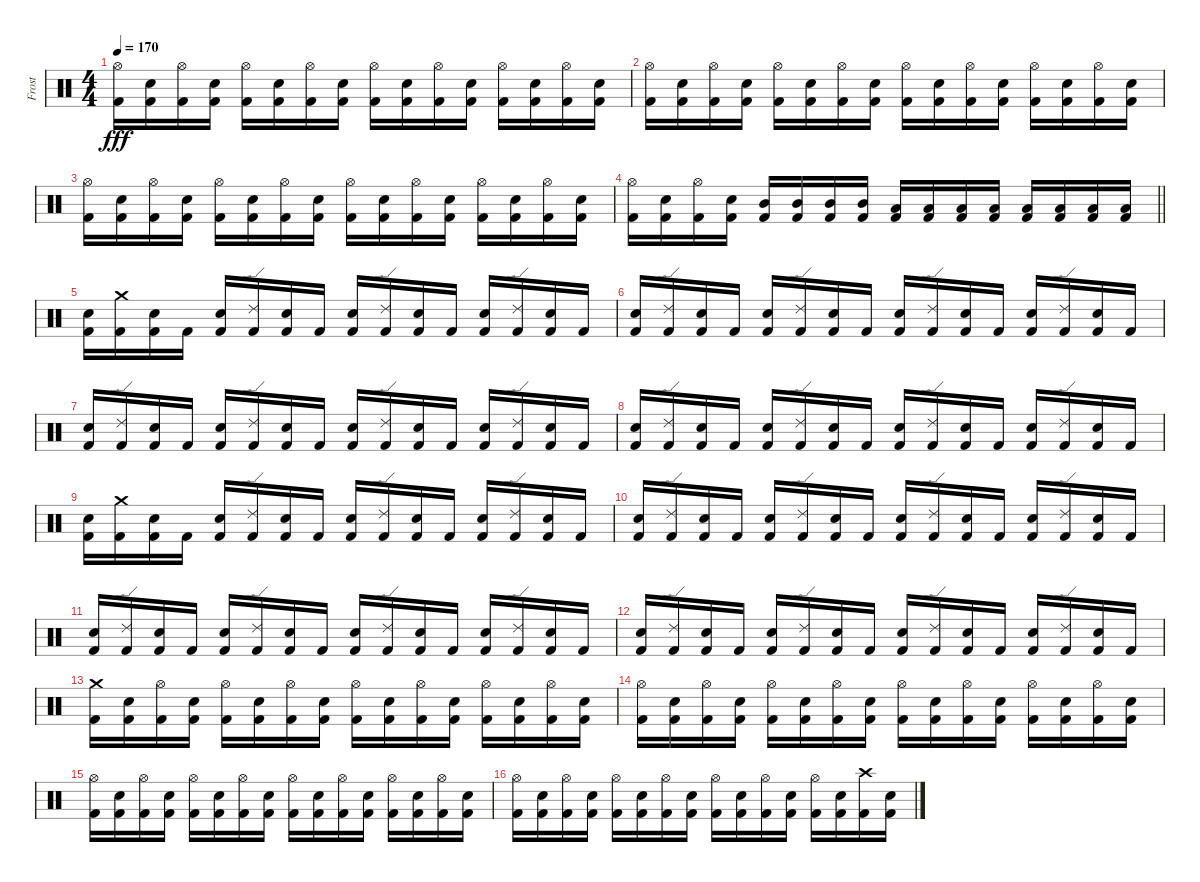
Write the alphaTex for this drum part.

\track ("Frost" "Frost") {instrument percussion}
\staff {score}
\articulation defaults
\ts (4 4)
\tempo 170
\clef neutral
\ks c
("Hi-Hat (open)" "Kick (hit) 2").16{dy fff} ("Electric Snare (hit)" "Kick (hit) 2").16 ("Hi-Hat (open)" "Kick (hit) 2").16 ("Electric Snare (hit)" "Kick (hit) 2").16 ("Hi-Hat (open)" "Kick (hit) 2").16 ("Electric Snare (hit)" "Kick (hit) 2").16 ("Hi-Hat (open)" "Kick (hit) 2").16 ("Electric Snare (hit)" "Kick (hit) 2").16 ("Hi-Hat (open)" "Kick (hit) 2").16 ("Electric Snare (hit)" "Kick (hit) 2").16 ("Hi-Hat (open)" "Kick (hit) 2").16 ("Electric Snare (hit)" "Kick (hit) 2").16 ("Hi-Hat (open)" "Kick (hit) 2").16 ("Electric Snare (hit)" "Kick (hit) 2").16 ("Hi-Hat (open)" "Kick (hit) 2").16 ("Electric Snare (hit)" "Kick (hit) 2").16 |
("Hi-Hat (open)" "Kick (hit) 2").16 ("Electric Snare (hit)" "Kick (hit) 2").16 ("Hi-Hat (open)" "Kick (hit) 2").16 ("Electric Snare (hit)" "Kick (hit) 2").16 ("Hi-Hat (open)" "Kick (hit) 2").16 ("Electric Snare (hit)" "Kick (hit) 2").16 ("Hi-Hat (open)" "Kick (hit) 2").16 ("Electric Snare (hit)" "Kick (hit) 2").16 ("Hi-Hat (open)" "Kick (hit) 2").16 ("Electric Snare (hit)" "Kick (hit) 2").16 ("Hi-Hat (open)" "Kick (hit) 2").16 ("Electric Snare (hit)" "Kick (hit) 2").16 ("Hi-Hat (open)" "Kick (hit) 2").16 ("Electric Snare (hit)" "Kick (hit) 2").16 ("Hi-Hat (open)" "Kick (hit) 2").16 ("Electric Snare (hit)" "Kick (hit) 2").16 |
("Hi-Hat (open)" "Kick (hit) 2").16 ("Electric Snare (hit)" "Kick (hit) 2").16 ("Hi-Hat (open)" "Kick (hit) 2").16 ("Electric Snare (hit)" "Kick (hit) 2").16 ("Hi-Hat (open)" "Kick (hit) 2").16 ("Electric Snare (hit)" "Kick (hit) 2").16 ("Hi-Hat (open)" "Kick (hit) 2").16 ("Electric Snare (hit)" "Kick (hit) 2").16 ("Hi-Hat (open)" "Kick (hit) 2").16 ("Electric Snare (hit)" "Kick (hit) 2").16 ("Hi-Hat (open)" "Kick (hit) 2").16 ("Electric Snare (hit)" "Kick (hit) 2").16 ("Hi-Hat (open)" "Kick (hit) 2").16 ("Electric Snare (hit)" "Kick (hit) 2").16 ("Hi-Hat (open)" "Kick (hit) 2").16 ("Electric Snare (hit)" "Kick (hit) 2").16 |
\barLineRight lightlight
("Hi-Hat (open)" "Kick (hit) 2").16 ("Electric Snare (hit)" "Kick (hit) 2").16 ("Hi-Hat (open)" "Kick (hit) 2").16 ("Electric Snare (hit)" "Kick (hit) 2").16 ("Mid Tom (hit)" "Kick (hit) 2").16 ("Mid Tom (hit)" "Kick (hit) 2").16 ("Mid Tom (hit)" "Kick (hit) 2").16 ("Mid Tom (hit)" "Kick (hit) 2").16 ("Low Tom (hit)" "Kick (hit) 2").16 ("Low Tom (hit)" "Kick (hit) 2").16 ("Low Tom (hit)" "Kick (hit) 2").16 ("Low Tom (hit)" "Kick (hit) 2").16 ("Low Floor Tom (hit)" "Kick (hit) 2").16 ("Low Floor Tom (hit)" "Kick (hit) 2").16 ("Low Floor Tom (hit)" "Kick (hit) 2").16 ("Low Floor Tom (hit)" "Kick (hit) 2").16 |
("Electric Snare (hit)" "Kick (hit) 2").16 ("Crash medium (hit)" "Kick (hit) 2").16 ("Electric Snare (hit)" "Kick (hit) 2").16 "Kick (hit) 2".16 ("Electric Snare (hit)" "Kick (hit) 2").16 ("Ride (edge) 2" "Kick (hit) 2").16 ("Electric Snare (hit)" "Kick (hit) 2").16 "Kick (hit) 2".16 ("Electric Snare (hit)" "Kick (hit) 2").16 ("Ride (edge) 2" "Kick (hit) 2").16 ("Electric Snare (hit)" "Kick (hit) 2").16 "Kick (hit) 2".16 ("Electric Snare (hit)" "Kick (hit) 2").16 ("Ride (edge) 2" "Kick (hit) 2").16 ("Electric Snare (hit)" "Kick (hit) 2").16 "Kick (hit) 2".16 |
("Electric Snare (hit)" "Kick (hit) 2").16 ("Ride (edge) 2" "Kick (hit) 2").16 ("Electric Snare (hit)" "Kick (hit) 2").16 "Kick (hit) 2".16 ("Electric Snare (hit)" "Kick (hit) 2").16 ("Ride (edge) 2" "Kick (hit) 2").16 ("Electric Snare (hit)" "Kick (hit) 2").16 "Kick (hit) 2".16 ("Electric Snare (hit)" "Kick (hit) 2").16 ("Ride (edge) 2" "Kick (hit) 2").16 ("Electric Snare (hit)" "Kick (hit) 2").16 "Kick (hit) 2".16 ("Electric Snare (hit)" "Kick (hit) 2").16 ("Ride (edge) 2" "Kick (hit) 2").16 ("Electric Snare (hit)" "Kick (hit) 2").16 "Kick (hit) 2".16 |
("Electric Snare (hit)" "Kick (hit) 2").16 ("Ride (edge) 2" "Kick (hit) 2").16 ("Electric Snare (hit)" "Kick (hit) 2").16 "Kick (hit) 2".16 ("Electric Snare (hit)" "Kick (hit) 2").16 ("Ride (edge) 2" "Kick (hit) 2").16 ("Electric Snare (hit)" "Kick (hit) 2").16 "Kick (hit) 2".16 ("Electric Snare (hit)" "Kick (hit) 2").16 ("Ride (edge) 2" "Kick (hit) 2").16 ("Electric Snare (hit)" "Kick (hit) 2").16 "Kick (hit) 2".16 ("Electric Snare (hit)" "Kick (hit) 2").16 ("Ride (edge) 2" "Kick (hit) 2").16 ("Electric Snare (hit)" "Kick (hit) 2").16 "Kick (hit) 2".16 |
("Electric Snare (hit)" "Kick (hit) 2").16 ("Ride (edge) 2" "Kick (hit) 2").16 ("Electric Snare (hit)" "Kick (hit) 2").16 "Kick (hit) 2".16 ("Electric Snare (hit)" "Kick (hit) 2").16 ("Ride (edge) 2" "Kick (hit) 2").16 ("Electric Snare (hit)" "Kick (hit) 2").16 "Kick (hit) 2".16 ("Electric Snare (hit)" "Kick (hit) 2").16 ("Ride (edge) 2" "Kick (hit) 2").16 ("Electric Snare (hit)" "Kick (hit) 2").16 "Kick (hit) 2".16 ("Electric Snare (hit)" "Kick (hit) 2").16 ("Ride (edge) 2" "Kick (hit) 2").16 ("Electric Snare (hit)" "Kick (hit) 2").16 "Kick (hit) 2".16 |
("Electric Snare (hit)" "Kick (hit) 2").16 ("Crash medium (hit)" "Kick (hit) 2").16 ("Electric Snare (hit)" "Kick (hit) 2").16 "Kick (hit) 2".16 ("Electric Snare (hit)" "Kick (hit) 2").16 ("Ride (edge) 2" "Kick (hit) 2").16 ("Electric Snare (hit)" "Kick (hit) 2").16 "Kick (hit) 2".16 ("Electric Snare (hit)" "Kick (hit) 2").16 ("Ride (edge) 2" "Kick (hit) 2").16 ("Electric Snare (hit)" "Kick (hit) 2").16 "Kick (hit) 2".16 ("Electric Snare (hit)" "Kick (hit) 2").16 ("Ride (edge) 2" "Kick (hit) 2").16 ("Electric Snare (hit)" "Kick (hit) 2").16 "Kick (hit) 2".16 |
("Electric Snare (hit)" "Kick (hit) 2").16 ("Ride (edge) 2" "Kick (hit) 2").16 ("Electric Snare (hit)" "Kick (hit) 2").16 "Kick (hit) 2".16 ("Electric Snare (hit)" "Kick (hit) 2").16 ("Ride (edge) 2" "Kick (hit) 2").16 ("Electric Snare (hit)" "Kick (hit) 2").16 "Kick (hit) 2".16 ("Electric Snare (hit)" "Kick (hit) 2").16 ("Ride (edge) 2" "Kick (hit) 2").16 ("Electric Snare (hit)" "Kick (hit) 2").16 "Kick (hit) 2".16 ("Electric Snare (hit)" "Kick (hit) 2").16 ("Ride (edge) 2" "Kick (hit) 2").16 ("Electric Snare (hit)" "Kick (hit) 2").16 "Kick (hit) 2".16 |
("Electric Snare (hit)" "Kick (hit) 2").16 ("Ride (edge) 2" "Kick (hit) 2").16 ("Electric Snare (hit)" "Kick (hit) 2").16 "Kick (hit) 2".16 ("Electric Snare (hit)" "Kick (hit) 2").16 ("Ride (edge) 2" "Kick (hit) 2").16 ("Electric Snare (hit)" "Kick (hit) 2").16 "Kick (hit) 2".16 ("Electric Snare (hit)" "Kick (hit) 2").16 ("Ride (edge) 2" "Kick (hit) 2").16 ("Electric Snare (hit)" "Kick (hit) 2").16 "Kick (hit) 2".16 ("Electric Snare (hit)" "Kick (hit) 2").16 ("Ride (edge) 2" "Kick (hit) 2").16 ("Electric Snare (hit)" "Kick (hit) 2").16 "Kick (hit) 2".16 |
("Electric Snare (hit)" "Kick (hit) 2").16 ("Ride (edge) 2" "Kick (hit) 2").16 ("Electric Snare (hit)" "Kick (hit) 2").16 "Kick (hit) 2".16 ("Electric Snare (hit)" "Kick (hit) 2").16 ("Ride (edge) 2" "Kick (hit) 2").16 ("Electric Snare (hit)" "Kick (hit) 2").16 "Kick (hit) 2".16 ("Electric Snare (hit)" "Kick (hit) 2").16 ("Ride (edge) 2" "Kick (hit) 2").16 ("Electric Snare (hit)" "Kick (hit) 2").16 "Kick (hit) 2".16 ("Electric Snare (hit)" "Kick (hit) 2").16 ("Ride (edge) 2" "Kick (hit) 2").16 ("Electric Snare (hit)" "Kick (hit) 2").16 "Kick (hit) 2".16 |
("Crash medium (hit)" "Kick (hit) 2").16 ("Electric Snare (hit)" "Kick (hit) 2").16 ("Hi-Hat (open)" "Kick (hit) 2").16 ("Electric Snare (hit)" "Kick (hit) 2").16 ("Hi-Hat (open)" "Kick (hit) 2").16 ("Electric Snare (hit)" "Kick (hit) 2").16 ("Hi-Hat (open)" "Kick (hit) 2").16 ("Electric Snare (hit)" "Kick (hit) 2").16 ("Hi-Hat (open)" "Kick (hit) 2").16 ("Electric Snare (hit)" "Kick (hit) 2").16 ("Hi-Hat (open)" "Kick (hit) 2").16 ("Electric Snare (hit)" "Kick (hit) 2").16 ("Hi-Hat (open)" "Kick (hit) 2").16 ("Electric Snare (hit)" "Kick (hit) 2").16 ("Hi-Hat (open)" "Kick (hit) 2").16 ("Electric Snare (hit)" "Kick (hit) 2").16 |
("Hi-Hat (open)" "Kick (hit) 2").16 ("Electric Snare (hit)" "Kick (hit) 2").16 ("Hi-Hat (open)" "Kick (hit) 2").16 ("Electric Snare (hit)" "Kick (hit) 2").16 ("Hi-Hat (open)" "Kick (hit) 2").16 ("Electric Snare (hit)" "Kick (hit) 2").16 ("Hi-Hat (open)" "Kick (hit) 2").16 ("Electric Snare (hit)" "Kick (hit) 2").16 ("Hi-Hat (open)" "Kick (hit) 2").16 ("Electric Snare (hit)" "Kick (hit) 2").16 ("Hi-Hat (open)" "Kick (hit) 2").16 ("Electric Snare (hit)" "Kick (hit) 2").16 ("Hi-Hat (open)" "Kick (hit) 2").16 ("Electric Snare (hit)" "Kick (hit) 2").16 ("Hi-Hat (open)" "Kick (hit) 2").16 ("Electric Snare (hit)" "Kick (hit) 2").16 |
("Hi-Hat (open)" "Kick (hit) 2").16 ("Electric Snare (hit)" "Kick (hit) 2").16 ("Hi-Hat (open)" "Kick (hit) 2").16 ("Electric Snare (hit)" "Kick (hit) 2").16 ("Hi-Hat (open)" "Kick (hit) 2").16 ("Electric Snare (hit)" "Kick (hit) 2").16 ("Hi-Hat (open)" "Kick (hit) 2").16 ("Electric Snare (hit)" "Kick (hit) 2").16 ("Hi-Hat (open)" "Kick (hit) 2").16 ("Electric Snare (hit)" "Kick (hit) 2").16 ("Hi-Hat (open)" "Kick (hit) 2").16 ("Electric Snare (hit)" "Kick (hit) 2").16 ("Hi-Hat (open)" "Kick (hit) 2").16 ("Electric Snare (hit)" "Kick (hit) 2").16 ("Hi-Hat (open)" "Kick (hit) 2").16 ("Electric Snare (hit)" "Kick (hit) 2").16 |
("Hi-Hat (open)" "Kick (hit) 2").16 ("Electric Snare (hit)" "Kick (hit) 2").16 ("Hi-Hat (open)" "Kick (hit) 2").16 ("Electric Snare (hit)" "Kick (hit) 2").16 ("Hi-Hat (open)" "Kick (hit) 2").16 ("Electric Snare (hit)" "Kick (hit) 2").16 ("Hi-Hat (open)" "Kick (hit) 2").16 ("Electric Snare (hit)" "Kick (hit) 2").16 ("Hi-Hat (open)" "Kick (hit) 2").16 ("Electric Snare (hit)" "Kick (hit) 2").16 ("Hi-Hat (open)" "Kick (hit) 2").16 ("Electric Snare (hit)" "Kick (hit) 2").16 ("Hi-Hat (open)" "Kick (hit) 2").16 ("Electric Snare (hit)" "Kick (hit) 2").16 ("Crash high (hit)" "Kick (hit) 2").16 ("Electric Snare (hit)" "Kick (hit) 2").16
